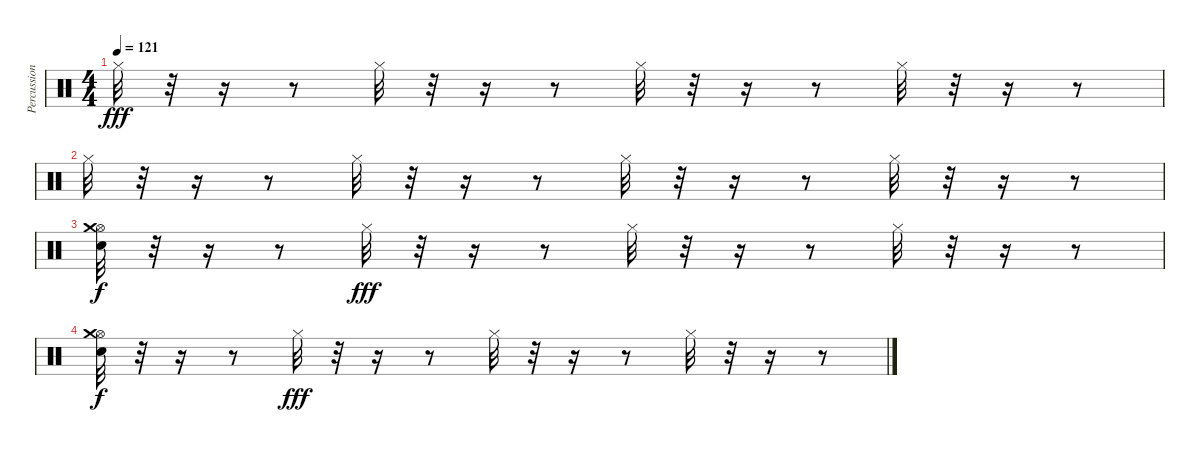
\track ("Percussions" "Percussion") {instrument percussion}
\staff {score}
\articulation defaults
\ts (4 4)
\tempo 121
\clef neutral
\ks c "Hi-Hat (closed)".32{dy fff}
r.32 r.16 r.8 "Hi-Hat (closed)".32 r.32 r.16 r.8 "Hi-Hat (closed)".32 r.32 r.16 r.8 "Hi-Hat (closed)".32 r.32 r.16 r.8 |
"Hi-Hat (closed)".32 r.32 r.16 r.8 "Hi-Hat (closed)".32 r.32 r.16 r.8 "Hi-Hat (closed)".32 r.32 r.16 r.8 "Hi-Hat (closed)".32 r.32 r.16 r.8 |
("Hi-Hat (open)" "Crash medium (hit)" "Snare (hit) 2").32{dy f} r.32 r.16 r.8 "Hi-Hat (closed)".32{dy fff} r.32 r.16 r.8 "Hi-Hat (closed)".32 r.32 r.16 r.8 "Hi-Hat (closed)".32 r.32 r.16 r.8 |
("Hi-Hat (open)" "Crash medium (hit)" "Snare (hit) 2").32{dy f} r.32 r.16 r.8 "Hi-Hat (closed)".32{dy fff} r.32 r.16 r.8 "Hi-Hat (closed)".32 r.32 r.16 r.8 "Hi-Hat (closed)".32 r.32 r.16 r.8
